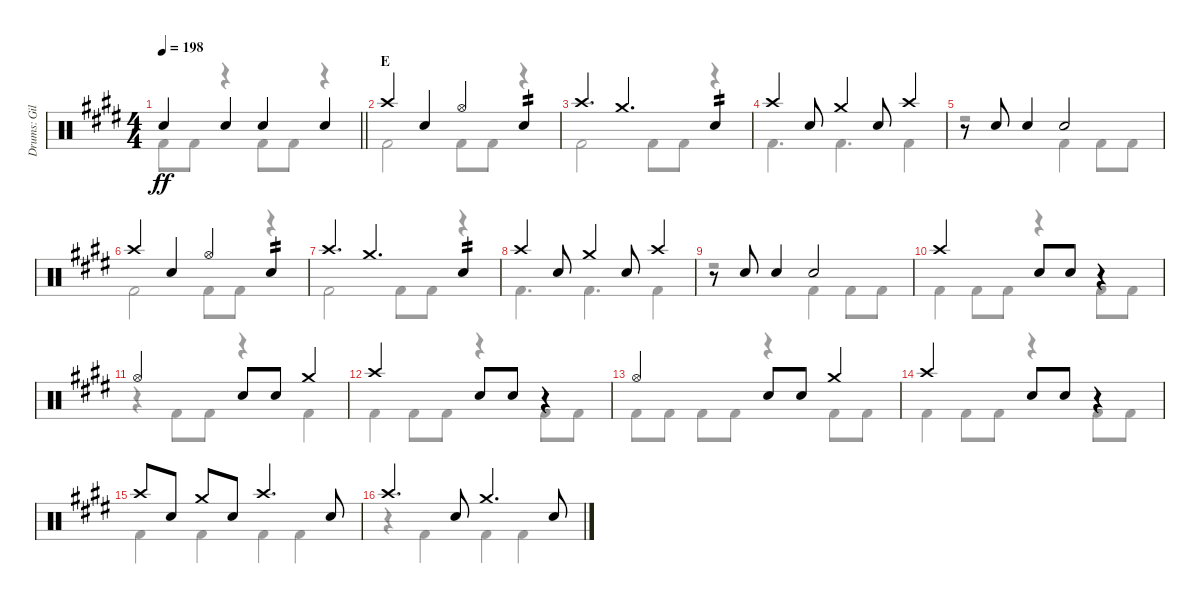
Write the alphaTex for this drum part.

\track ("Drums: Gil" "Drums: Gil") {instrument percussion}
\staff {score}
\articulation defaults
\voice
\ts (4 4)
\tempo 198
\clef neutral
\barLineRight lightlight
\ks e "Snare (hit) 2".4{dy ff} "Snare (hit) 2".4{beam merge} "Snare (hit) 2".4 "Snare (hit) 2".4
|
\section ("" "E")
"Crash high (hit)".4 "Snare (hit) 2".4{beam merge} "Hi-Hat (open)".4 "Electric Snare (hit)".4{tp 2} |
"Crash high (hit)".4{d} "Crash medium (hit)".4{d} "Snare (hit) 2".4{tp 2} |
"Crash high (hit)".4 "Snare (hit) 2".8 "Crash medium (hit)".4 "Snare (hit) 2".8 "Crash high (hit)".4 |
r.8 "Snare (hit) 2".8 "Snare (hit) 2".4 "Snare (hit) 2".2 |
"Crash high (hit)".4 "Snare (hit) 2".4{beam merge} "Hi-Hat (open)".4 "Electric Snare (hit)".4{tp 2} |
"Crash high (hit)".4{d} "Crash medium (hit)".4{d} "Snare (hit) 2".4{tp 2} |
"Crash high (hit)".4 "Snare (hit) 2".8 "Crash medium (hit)".4 "Snare (hit) 2".8 "Crash high (hit)".4 |
r.8 "Snare (hit) 2".8 "Snare (hit) 2".4 "Snare (hit) 2".2 |
"Crash high (hit)".2 "Snare (hit) 2".8 "Snare (hit) 2".8 r.4 |
"Hi-Hat (open)".2 "Snare (hit) 2".8 "Snare (hit) 2".8 "Crash medium (hit)".4 |
"Crash high (hit)".2 "Snare (hit) 2".8 "Snare (hit) 2".8 r.4 |
"Hi-Hat (open)".2 "Snare (hit) 2".8 "Snare (hit) 2".8 "Crash medium (hit)".4 |
"Crash high (hit)".2 "Snare (hit) 2".8 "Snare (hit) 2".8 r.4 |
"Crash high (hit)".8 "Snare (hit) 2".8 "Crash medium (hit)".8 "Snare (hit) 2".8 "Crash high (hit)".4{d} "Snare (hit) 2".8 |
"Crash high (hit)".4{d} "Snare (hit) 2".8 "Crash medium (hit)".4{d} "Snare (hit) 2".8
\voice
\clef neutral
\ottava regular
\simile none
\barLineRight lightlight
\ks e "Kick (hit) 2".8{dy ff} "Kick (hit) 2".8
r.4 "Kick (hit) 2".8 "Kick (hit) 2".8 r.4 |
"Kick (hit) 2".2 "Kick (hit) 2".8 "Kick (hit) 2".8 r.4 |
"Kick (hit) 2".2 "Kick (hit) 2".8 "Kick (hit) 2".8 r.4 |
"Kick (hit) 2".4{d} "Kick (hit) 2".4{d} "Kick (hit) 2".4 |
r.2 "Kick (hit) 2".4 "Kick (hit) 2".8 "Kick (hit) 2".8 |
"Kick (hit) 2".2 "Kick (hit) 2".8 "Kick (hit) 2".8 r.4 |
"Kick (hit) 2".2 "Kick (hit) 2".8 "Kick (hit) 2".8 r.4 |
"Kick (hit) 2".4{d} "Kick (hit) 2".4{d} "Kick (hit) 2".4 |
r.2 "Kick (hit) 2".4 "Kick (hit) 2".8 "Kick (hit) 2".8 |
"Kick (hit) 2".4 "Kick (hit) 2".8 "Kick (hit) 2".8 r.4 "Kick (hit) 2".8 "Kick (hit) 2".8 |
r.4 "Kick (hit) 2".8 "Kick (hit) 2".8 r.4 "Kick (hit) 2".4 |
"Kick (hit) 2".4 "Kick (hit) 2".8 "Kick (hit) 2".8 r.4 "Kick (hit) 2".8 "Kick (hit) 2".8 |
"Kick (hit) 2".8 "Kick (hit) 2".8 "Kick (hit) 2".8 "Kick (hit) 2".8 r.4 "Kick (hit) 2".8 "Kick (hit) 2".8 |
"Kick (hit) 2".4 "Kick (hit) 2".8 "Kick (hit) 2".8 r.4 "Kick (hit) 2".8 "Kick (hit) 2".8 |
"Kick (hit) 2".4 "Kick (hit) 2".4{beam merge} "Kick (hit) 2".4 "Kick (hit) 2".4 |
r.4 "Kick (hit) 2".4{beam merge} "Kick (hit) 2".4 "Kick (hit) 2".4
